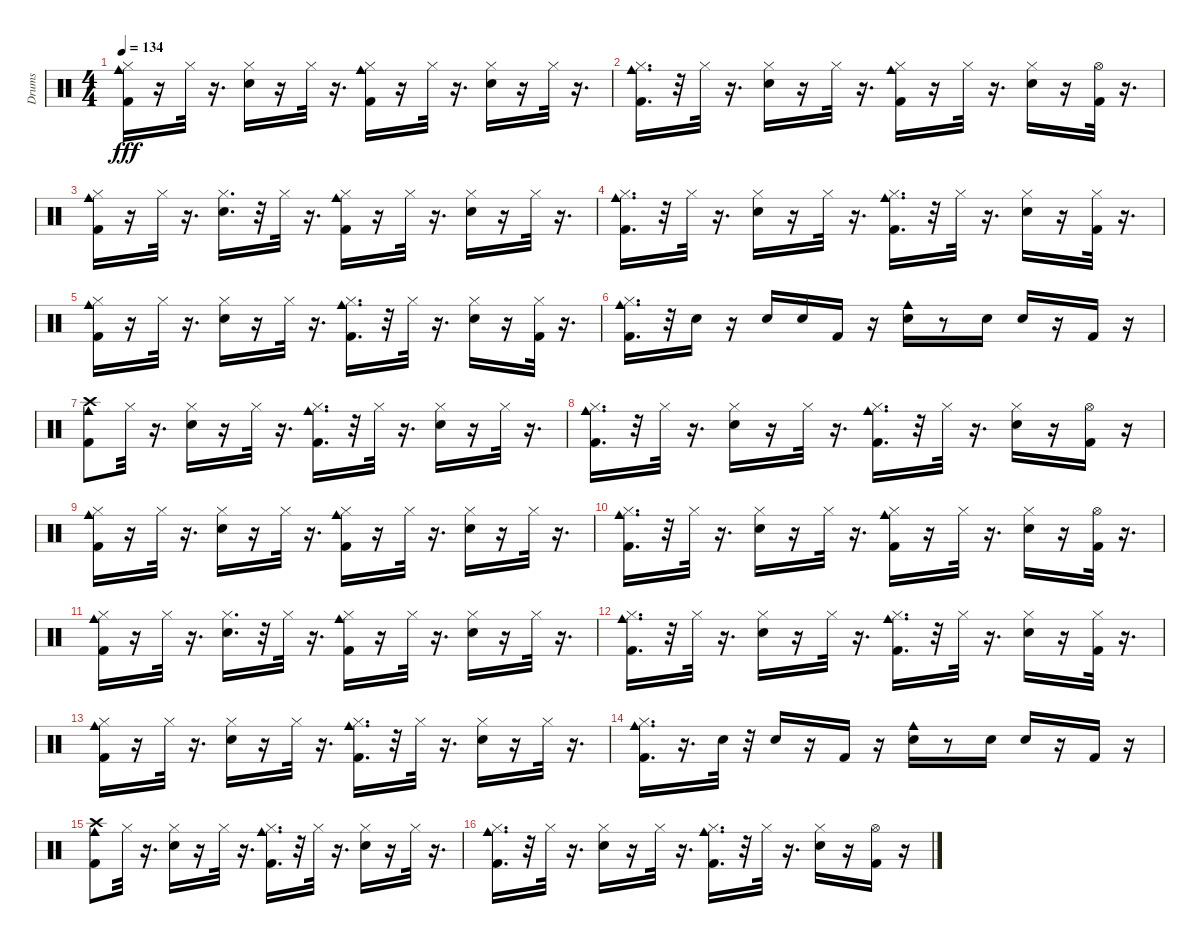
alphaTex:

\track ("Drums" "Drums") {instrument percussion}
\staff {score}
\articulation defaults
\ts (4 4)
\tempo 134
\clef neutral
\ks c
("Kick (hit) 2" "Hi-Hat (closed)" "Cowbell medium (hit)").16{dy fff} r.16 "Hi-Hat (closed)".32 r.16{d} ("Snare (hit) 2" "Hi-Hat (closed)").16 r.16 "Hi-Hat (closed)".32 r.16{d} ("Kick (hit) 2" "Hi-Hat (closed)" "Cowbell medium (hit)").16 r.16 "Hi-Hat (closed)".32 r.16{d} ("Snare (hit) 2" "Hi-Hat (closed)").16 r.16 "Hi-Hat (closed)".32 r.16{d} |
("Kick (hit) 2" "Hi-Hat (closed)" "Cowbell medium (hit)").16{d} r.32 "Hi-Hat (closed)".32 r.16{d} ("Snare (hit) 2" "Hi-Hat (closed)").16 r.16 "Hi-Hat (closed)".32 r.16{d} ("Kick (hit) 2" "Hi-Hat (closed)" "Cowbell medium (hit)").16 r.16 "Hi-Hat (closed)".32 r.16{d} ("Snare (hit) 2" "Hi-Hat (closed)").16 r.16 ("Kick (hit) 2" "Hi-Hat (open)").32 r.16{d} |
("Kick (hit) 2" "Hi-Hat (closed)" "Cowbell medium (hit)").16 r.16 "Hi-Hat (closed)".32 r.16{d} ("Snare (hit) 2" "Hi-Hat (closed)").16{d} r.32 "Hi-Hat (closed)".32 r.16{d} ("Kick (hit) 2" "Hi-Hat (closed)" "Cowbell medium (hit)").16 r.16 "Hi-Hat (closed)".32 r.16{d} ("Snare (hit) 2" "Hi-Hat (closed)").16 r.16 "Hi-Hat (closed)".32 r.16{d} |
("Kick (hit) 2" "Hi-Hat (closed)" "Cowbell medium (hit)").16{d} r.32 "Hi-Hat (closed)".32 r.16{d} ("Snare (hit) 2" "Hi-Hat (closed)").16 r.16 "Hi-Hat (closed)".32 r.16{d} ("Kick (hit) 2" "Hi-Hat (closed)" "Cowbell medium (hit)").16{d} r.32 "Hi-Hat (closed)".32 r.16{d} ("Snare (hit) 2" "Hi-Hat (closed)").16 r.16 ("Kick (hit) 2" "Hi-Hat (closed)").32 r.16{d} |
("Kick (hit) 2" "Hi-Hat (closed)" "Cowbell medium (hit)").16 r.16 "Hi-Hat (closed)".32 r.16{d} ("Snare (hit) 2" "Hi-Hat (closed)").16 r.16 "Hi-Hat (closed)".32 r.16{d} ("Kick (hit) 2" "Hi-Hat (closed)" "Cowbell medium (hit)").16{d} r.32 "Hi-Hat (closed)".32 r.16{d} ("Snare (hit) 2" "Hi-Hat (closed)").16 r.16 ("Kick (hit) 2" "Hi-Hat (closed)").32 r.16{d} |
("Kick (hit) 2" "Hi-Hat (closed)" "Cowbell medium (hit)").16{d} r.32 "Snare (hit) 2".16 r.16 "Snare (hit) 2".16 "Snare (hit) 2".16 "Kick (hit) 2".16 r.16 ("Snare (hit) 2" "Cowbell medium (hit)").16 r.8 "Snare (hit) 2".16 "Snare (hit) 2".16 r.16 "Kick (hit) 2".16 r.16 |
("Kick (hit) 2" "Crash high (hit)" "Cowbell medium (hit)").8 "Hi-Hat (closed)".32 r.16{d} ("Snare (hit) 2" "Hi-Hat (closed)").16 r.16 "Hi-Hat (closed)".32 r.16{d} ("Kick (hit) 2" "Hi-Hat (closed)" "Cowbell medium (hit)").16{d} r.32 "Hi-Hat (closed)".32 r.16{d} ("Snare (hit) 2" "Hi-Hat (closed)").16 r.16 "Hi-Hat (closed)".32 r.16{d} |
("Kick (hit) 2" "Hi-Hat (closed)" "Cowbell medium (hit)").16{d} r.32 "Hi-Hat (closed)".32 r.16{d} ("Snare (hit) 2" "Hi-Hat (closed)").16 r.16 "Hi-Hat (closed)".32 r.16{d} ("Kick (hit) 2" "Hi-Hat (closed)" "Cowbell medium (hit)").16{d} r.32 "Hi-Hat (closed)".32 r.16{d} ("Snare (hit) 2" "Hi-Hat (closed)").16 r.16 ("Kick (hit) 2" "Hi-Hat (open)").16 r.16 |
("Kick (hit) 2" "Hi-Hat (closed)" "Cowbell medium (hit)").16 r.16 "Hi-Hat (closed)".32 r.16{d} ("Snare (hit) 2" "Hi-Hat (closed)").16 r.16 "Hi-Hat (closed)".32 r.16{d} ("Kick (hit) 2" "Hi-Hat (closed)" "Cowbell medium (hit)").16 r.16 "Hi-Hat (closed)".32 r.16{d} ("Snare (hit) 2" "Hi-Hat (closed)").16 r.16 "Hi-Hat (closed)".32 r.16{d} |
("Kick (hit) 2" "Hi-Hat (closed)" "Cowbell medium (hit)").16{d} r.32 "Hi-Hat (closed)".32 r.16{d} ("Snare (hit) 2" "Hi-Hat (closed)").16 r.16 "Hi-Hat (closed)".32 r.16{d} ("Kick (hit) 2" "Hi-Hat (closed)" "Cowbell medium (hit)").16 r.16 "Hi-Hat (closed)".32 r.16{d} ("Snare (hit) 2" "Hi-Hat (closed)").16 r.16 ("Kick (hit) 2" "Hi-Hat (open)").32 r.16{d} |
("Kick (hit) 2" "Hi-Hat (closed)" "Cowbell medium (hit)").16 r.16 "Hi-Hat (closed)".32 r.16{d} ("Snare (hit) 2" "Hi-Hat (closed)").16{d} r.32 "Hi-Hat (closed)".32 r.16{d} ("Kick (hit) 2" "Hi-Hat (closed)" "Cowbell medium (hit)").16 r.16 "Hi-Hat (closed)".32 r.16{d} ("Snare (hit) 2" "Hi-Hat (closed)").16 r.16 "Hi-Hat (closed)".32 r.16{d} |
("Kick (hit) 2" "Hi-Hat (closed)" "Cowbell medium (hit)").16{d} r.32 "Hi-Hat (closed)".32 r.16{d} ("Snare (hit) 2" "Hi-Hat (closed)").16 r.16 "Hi-Hat (closed)".32 r.16{d} ("Kick (hit) 2" "Hi-Hat (closed)" "Cowbell medium (hit)").16{d} r.32 "Hi-Hat (closed)".32 r.16{d} ("Snare (hit) 2" "Hi-Hat (closed)").16 r.16 ("Kick (hit) 2" "Hi-Hat (closed)").32 r.16{d} |
("Kick (hit) 2" "Hi-Hat (closed)" "Cowbell medium (hit)").16 r.16 "Hi-Hat (closed)".32 r.16{d} ("Snare (hit) 2" "Hi-Hat (closed)").16 r.16 "Hi-Hat (closed)".32 r.16{d} ("Kick (hit) 2" "Hi-Hat (closed)" "Cowbell medium (hit)").16{d} r.32 "Hi-Hat (closed)".32 r.16{d} ("Snare (hit) 2" "Hi-Hat (closed)").16 r.16 "Hi-Hat (closed)".32 r.16{d} |
("Kick (hit) 2" "Hi-Hat (closed)" "Cowbell medium (hit)").16{d} r.16{d} "Snare (hit) 2".32 r.32 "Snare (hit) 2".16 r.16 "Kick (hit) 2".16 r.16 ("Snare (hit) 2" "Cowbell medium (hit)").16 r.8 "Snare (hit) 2".16 "Snare (hit) 2".16 r.16 "Kick (hit) 2".16 r.16 |
("Kick (hit) 2" "Crash high (hit)" "Cowbell medium (hit)").8 "Hi-Hat (closed)".32 r.16{d} ("Snare (hit) 2" "Hi-Hat (closed)").16 r.16 "Hi-Hat (closed)".32 r.16{d} ("Kick (hit) 2" "Hi-Hat (closed)" "Cowbell medium (hit)").16{d} r.32 "Hi-Hat (closed)".32 r.16{d} ("Snare (hit) 2" "Hi-Hat (closed)").16 r.16 "Hi-Hat (closed)".32 r.16{d} |
("Kick (hit) 2" "Hi-Hat (closed)" "Cowbell medium (hit)").16{d} r.32 "Hi-Hat (closed)".32 r.16{d} ("Snare (hit) 2" "Hi-Hat (closed)").16 r.16 "Hi-Hat (closed)".32 r.16{d} ("Kick (hit) 2" "Hi-Hat (closed)" "Cowbell medium (hit)").16{d} r.32 "Hi-Hat (closed)".32 r.16{d} ("Snare (hit) 2" "Hi-Hat (closed)").16 r.16 ("Kick (hit) 2" "Hi-Hat (open)").16 r.16
